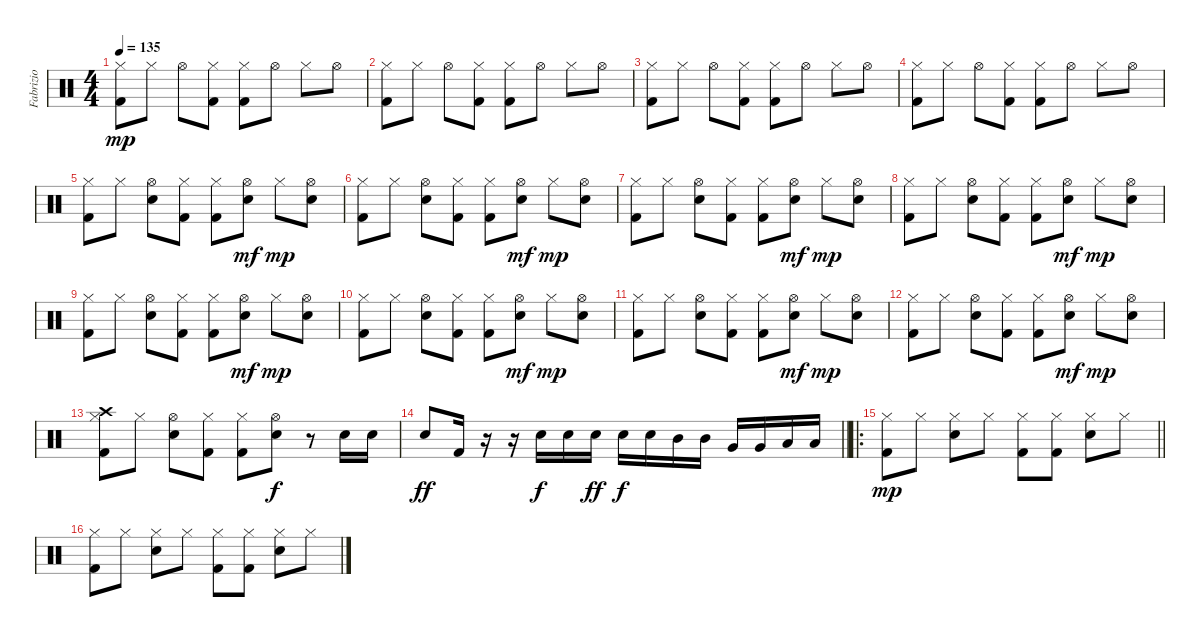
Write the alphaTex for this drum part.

\track ("Fabrizio" "Fabrizio") {instrument percussion}
\staff {score}
\articulation defaults
\ts (4 4)
\tempo 135
\clef neutral
\ks c
("Hi-Hat (closed)" "Kick (hit) 2").8{dy mp} "Hi-Hat (closed)".8 "Hi-Hat (open)".8 ("Hi-Hat (closed)" "Kick (hit) 2").8 ("Hi-Hat (closed)" "Kick (hit) 2").8 "Hi-Hat (open)".8 "Hi-Hat (closed)".8 "Hi-Hat (open)".8 |
("Hi-Hat (closed)" "Kick (hit) 2").8 "Hi-Hat (closed)".8 "Hi-Hat (open)".8 ("Hi-Hat (closed)" "Kick (hit) 2").8 ("Hi-Hat (closed)" "Kick (hit) 2").8 "Hi-Hat (open)".8 "Hi-Hat (closed)".8 "Hi-Hat (open)".8 |
("Hi-Hat (closed)" "Kick (hit) 2").8 "Hi-Hat (closed)".8 "Hi-Hat (open)".8 ("Hi-Hat (closed)" "Kick (hit) 2").8 ("Hi-Hat (closed)" "Kick (hit) 2").8 "Hi-Hat (open)".8 "Hi-Hat (closed)".8 "Hi-Hat (open)".8 |
("Hi-Hat (closed)" "Kick (hit) 2").8 "Hi-Hat (closed)".8 "Hi-Hat (open)".8 ("Hi-Hat (closed)" "Kick (hit) 2").8 ("Hi-Hat (closed)" "Kick (hit) 2").8 "Hi-Hat (open)".8 "Hi-Hat (closed)".8 "Hi-Hat (open)".8 |
("Hi-Hat (closed)" "Kick (hit) 2").8 "Hi-Hat (closed)".8 ("Hi-Hat (open)" "Electric Snare (hit)").8 ("Hi-Hat (closed)" "Kick (hit) 2").8 ("Hi-Hat (closed)" "Kick (hit) 2").8 ("Hi-Hat (open)" "Electric Snare (hit)").8{dy mf} "Hi-Hat (closed)".8{dy mp} ("Hi-Hat (open)" "Electric Snare (hit)").8 |
("Hi-Hat (closed)" "Kick (hit) 2").8 "Hi-Hat (closed)".8 ("Hi-Hat (open)" "Electric Snare (hit)").8 ("Hi-Hat (closed)" "Kick (hit) 2").8 ("Hi-Hat (closed)" "Kick (hit) 2").8 ("Hi-Hat (open)" "Electric Snare (hit)").8{dy mf} "Hi-Hat (closed)".8{dy mp} ("Hi-Hat (open)" "Electric Snare (hit)").8 |
("Hi-Hat (closed)" "Kick (hit) 2").8 "Hi-Hat (closed)".8 ("Hi-Hat (open)" "Electric Snare (hit)").8 ("Hi-Hat (closed)" "Kick (hit) 2").8 ("Hi-Hat (closed)" "Kick (hit) 2").8 ("Hi-Hat (open)" "Electric Snare (hit)").8{dy mf} "Hi-Hat (closed)".8{dy mp} ("Hi-Hat (open)" "Electric Snare (hit)").8 |
("Hi-Hat (closed)" "Kick (hit) 2").8 "Hi-Hat (closed)".8 ("Hi-Hat (open)" "Electric Snare (hit)").8 ("Hi-Hat (closed)" "Kick (hit) 2").8 ("Hi-Hat (closed)" "Kick (hit) 2").8 ("Hi-Hat (open)" "Electric Snare (hit)").8{dy mf} "Hi-Hat (closed)".8{dy mp} ("Hi-Hat (open)" "Electric Snare (hit)").8 |
("Hi-Hat (closed)" "Kick (hit) 2").8 "Hi-Hat (closed)".8 ("Hi-Hat (open)" "Electric Snare (hit)").8 ("Hi-Hat (closed)" "Kick (hit) 2").8 ("Hi-Hat (closed)" "Kick (hit) 2").8 ("Hi-Hat (open)" "Electric Snare (hit)").8{dy mf} "Hi-Hat (closed)".8{dy mp} ("Hi-Hat (open)" "Electric Snare (hit)").8 |
("Hi-Hat (closed)" "Kick (hit) 2").8 "Hi-Hat (closed)".8 ("Hi-Hat (open)" "Electric Snare (hit)").8 ("Hi-Hat (closed)" "Kick (hit) 2").8 ("Hi-Hat (closed)" "Kick (hit) 2").8 ("Hi-Hat (open)" "Electric Snare (hit)").8{dy mf} "Hi-Hat (closed)".8{dy mp} ("Hi-Hat (open)" "Electric Snare (hit)").8 |
("Hi-Hat (closed)" "Kick (hit) 2").8 "Hi-Hat (closed)".8 ("Hi-Hat (open)" "Electric Snare (hit)").8 ("Hi-Hat (closed)" "Kick (hit) 2").8 ("Hi-Hat (closed)" "Kick (hit) 2").8 ("Hi-Hat (open)" "Electric Snare (hit)").8{dy mf} "Hi-Hat (closed)".8{dy mp} ("Hi-Hat (open)" "Electric Snare (hit)").8 |
("Hi-Hat (closed)" "Kick (hit) 2").8 "Hi-Hat (closed)".8 ("Hi-Hat (open)" "Electric Snare (hit)").8 ("Hi-Hat (closed)" "Kick (hit) 2").8 ("Hi-Hat (closed)" "Kick (hit) 2").8 ("Hi-Hat (open)" "Electric Snare (hit)").8{dy mf} "Hi-Hat (closed)".8{dy mp} ("Hi-Hat (open)" "Electric Snare (hit)").8 |
("Crash high (hit)" "Hi-Hat (closed)" "Kick (hit) 2").8 "Hi-Hat (closed)".8 ("Hi-Hat (open)" "Electric Snare (hit)").8 ("Hi-Hat (closed)" "Kick (hit) 2").8 ("Hi-Hat (closed)" "Kick (hit) 2").8 ("Hi-Hat (open)" "Electric Snare (hit)").8{dy f} r.8 "Electric Snare (hit)".16 "Electric Snare (hit)".16 |
\barLineRight lightlight "Electric Snare (hit)".8{dy ff} "Kick (hit) 2".16
r.16 r.16 "Electric Snare (hit)".16{dy f} "Electric Snare (hit)".16 "Electric Snare (hit)".16{dy ff} "Electric Snare (hit)".16{dy f} "Electric Snare (hit)".16 "Mid Tom (hit)".16 "Mid Tom (hit)".16 "Very Low Tom (hit)".16 "Very Low Tom (hit)".16 "Low Floor Tom (hit)".16 "Low Floor Tom (hit)".16 |
\ro
\barLineRight lightlight
("Hi-Hat (closed)" "Kick (hit) 2").8{dy mp} "Hi-Hat (closed)".8 ("Hi-Hat (closed)" "Electric Snare (hit)").8 "Hi-Hat (closed)".8 ("Hi-Hat (closed)" "Kick (hit) 2").8 ("Hi-Hat (closed)" "Kick (hit) 2").8 ("Hi-Hat (closed)" "Electric Snare (hit)").8 "Hi-Hat (closed)".8 |
("Hi-Hat (closed)" "Kick (hit) 2").8 "Hi-Hat (closed)".8 ("Hi-Hat (closed)" "Electric Snare (hit)").8 "Hi-Hat (closed)".8 ("Hi-Hat (closed)" "Kick (hit) 2").8 ("Hi-Hat (closed)" "Kick (hit) 2").8 ("Hi-Hat (closed)" "Electric Snare (hit)").8 "Hi-Hat (closed)".8
